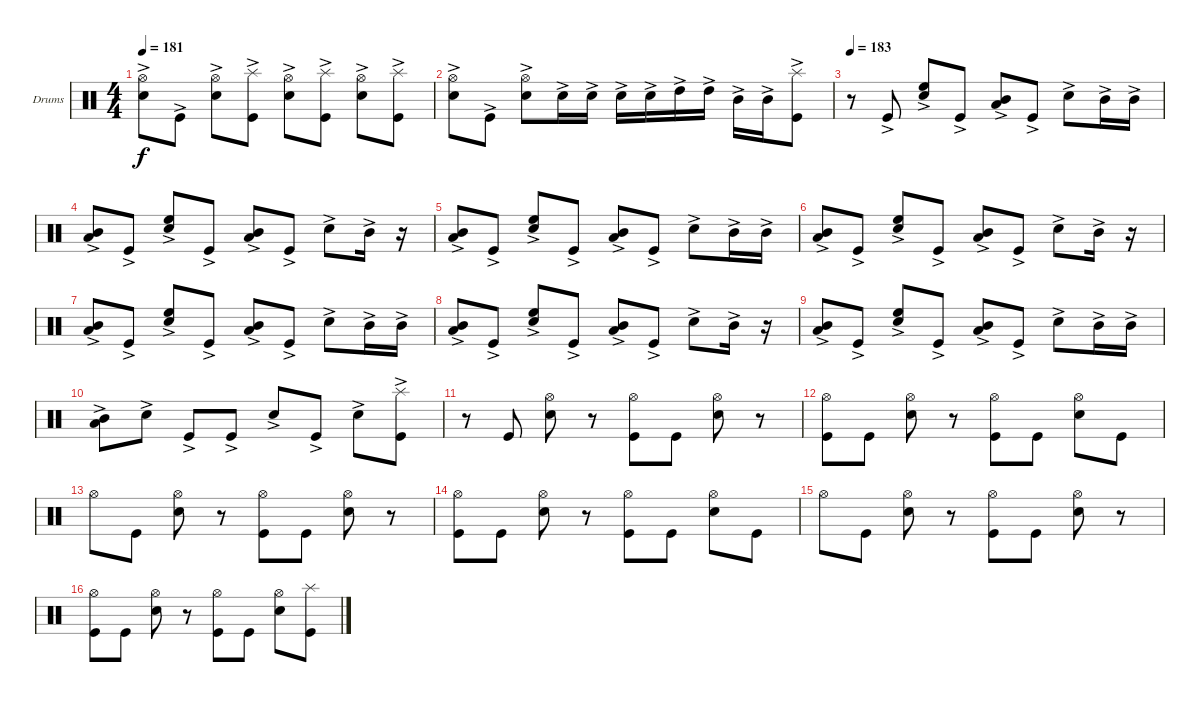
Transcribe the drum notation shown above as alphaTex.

\bracketExtendMode groupsimilarinstruments
\firstSystemTrackNameOrientation horizontal
\otherSystemsTrackNameOrientation horizontal
\track ("Drumkit" "Drums") {instrument percussion}
\staff {score}
\articulation defaults
\ts (4 4)
\tempo 181
\clef neutral
\ks c
("Snare (hit) 2"{ac} "Hi-Hat (open)"{ac}).8{dy f} "Kick (hit)"{ac}.8 ("Snare (hit) 2"{ac} "Hi-Hat (open)"{ac}).8 ("Kick (hit)"{ac} "Splash (hit)"{ac}).8 ("Snare (hit) 2"{ac} "Hi-Hat (open)"{ac}).8 ("Kick (hit)"{ac} "Splash (hit)"{ac}).8 ("Snare (hit) 2"{ac} "Hi-Hat (open)"{ac}).8 ("Kick (hit)"{ac} "Splash (hit)"{ac}).8 |
("Snare (hit) 2"{ac} "Hi-Hat (open)"{ac}).8 "Kick (hit)"{ac}.8 ("Snare (hit) 2"{ac} "Hi-Hat (open)"{ac}).8 "Snare (hit) 2"{ac}.16 "Snare (hit) 2"{ac}.16 "Snare (hit) 2"{ac}.16 "Snare (hit) 2"{ac}.16 "High Tom (hit)"{ac}.16 "High Tom (hit)"{ac}.16 "Mid Tom (hit)"{ac}.16 "Mid Tom (hit)"{ac}.16 ("Kick (hit)"{ac} "Splash (hit)"{ac}).8 |
\tempo 183
r.8 "Kick (hit)"{ac}.8 ("Snare (hit) 2"{ac} "High Floor Tom (hit)"{ac}).8 "Kick (hit)"{ac}.8 ("Mid Tom (hit)"{ac} "Low Tom (hit)"{ac}).8 "Kick (hit)"{ac}.8 "Snare (hit) 2"{ac}.8 "Mid Tom (hit)"{ac}.16 "Mid Tom (hit)"{ac}.16 |
("Mid Tom (hit)"{ac} "Low Tom (hit)"{ac}).8 "Kick (hit)"{ac}.8 ("Snare (hit) 2"{ac} "High Floor Tom (hit)"{ac}).8 "Kick (hit)"{ac}.8 ("Mid Tom (hit)"{ac} "Low Tom (hit)"{ac}).8 "Kick (hit)"{ac}.8 "Snare (hit) 2"{ac}.8 "Mid Tom (hit)"{ac}.16 r.16 |
("Mid Tom (hit)"{ac} "Low Tom (hit)"{ac}).8 "Kick (hit)"{ac}.8 ("Snare (hit) 2"{ac} "High Floor Tom (hit)"{ac}).8 "Kick (hit)"{ac}.8 ("Mid Tom (hit)"{ac} "Low Tom (hit)"{ac}).8 "Kick (hit)"{ac}.8 "Snare (hit) 2"{ac}.8 "Mid Tom (hit)"{ac}.16 "Mid Tom (hit)"{ac}.16 |
("Mid Tom (hit)"{ac} "Low Tom (hit)"{ac}).8 "Kick (hit)"{ac}.8 ("Snare (hit) 2"{ac} "High Floor Tom (hit)"{ac}).8 "Kick (hit)"{ac}.8 ("Mid Tom (hit)"{ac} "Low Tom (hit)"{ac}).8 "Kick (hit)"{ac}.8 "Snare (hit) 2"{ac}.8 "Mid Tom (hit)"{ac}.16 r.16 |
("Mid Tom (hit)"{ac} "Low Tom (hit)"{ac}).8 "Kick (hit)"{ac}.8 ("Snare (hit) 2"{ac} "High Floor Tom (hit)"{ac}).8 "Kick (hit)"{ac}.8 ("Mid Tom (hit)"{ac} "Low Tom (hit)"{ac}).8 "Kick (hit)"{ac}.8 "Snare (hit) 2"{ac}.8 "Mid Tom (hit)"{ac}.16 "Mid Tom (hit)"{ac}.16 |
("Mid Tom (hit)"{ac} "Low Tom (hit)"{ac}).8 "Kick (hit)"{ac}.8 ("Snare (hit) 2"{ac} "High Floor Tom (hit)"{ac}).8 "Kick (hit)"{ac}.8 ("Mid Tom (hit)"{ac} "Low Tom (hit)"{ac}).8 "Kick (hit)"{ac}.8 "Snare (hit) 2"{ac}.8 "Mid Tom (hit)"{ac}.16 r.16 |
("Mid Tom (hit)"{ac} "Low Tom (hit)"{ac}).8 "Kick (hit)"{ac}.8 ("Snare (hit) 2"{ac} "High Floor Tom (hit)"{ac}).8 "Kick (hit)"{ac}.8 ("Mid Tom (hit)"{ac} "Low Tom (hit)"{ac}).8 "Kick (hit)"{ac}.8 "Snare (hit) 2"{ac}.8 "Mid Tom (hit)"{ac}.16 "Mid Tom (hit)"{ac}.16 |
("Mid Tom (hit)"{ac} "Low Tom (hit)"{ac}).8 "Snare (hit) 2"{ac}.8 "Kick (hit)"{ac}.8 "Kick (hit)"{ac}.8 "Snare (hit) 2"{ac}.8 "Kick (hit)"{ac}.8 "Snare (hit) 2"{ac}.8 ("Kick (hit)"{ac} "Splash (hit)"{ac}).8 |
r.8 "Kick (hit)".8 ("Snare (hit) 2" "Hi-Hat (open)").8 r.8 ("Kick (hit)" "Hi-Hat (open)").8 "Kick (hit)".8 ("Snare (hit) 2" "Hi-Hat (open)").8 r.8 |
("Kick (hit)" "Hi-Hat (open)").8 "Kick (hit)".8 ("Snare (hit) 2" "Hi-Hat (open)").8 r.8 ("Kick (hit)" "Hi-Hat (open)").8 "Kick (hit)".8 ("Snare (hit) 2" "Hi-Hat (open)").8 "Kick (hit)".8 |
"Hi-Hat (open)".8 "Kick (hit)".8 ("Snare (hit) 2" "Hi-Hat (open)").8 r.8 ("Kick (hit)" "Hi-Hat (open)").8 "Kick (hit)".8 ("Snare (hit) 2" "Hi-Hat (open)").8 r.8 |
("Kick (hit)" "Hi-Hat (open)").8 "Kick (hit)".8 ("Snare (hit) 2" "Hi-Hat (open)").8 r.8 ("Kick (hit)" "Hi-Hat (open)").8 "Kick (hit)".8 ("Snare (hit) 2" "Hi-Hat (open)").8 "Kick (hit)".8 |
"Hi-Hat (open)".8 "Kick (hit)".8 ("Snare (hit) 2" "Hi-Hat (open)").8 r.8 ("Kick (hit)" "Hi-Hat (open)").8 "Kick (hit)".8 ("Snare (hit) 2" "Hi-Hat (open)").8 r.8 |
("Kick (hit)" "Hi-Hat (open)").8 "Kick (hit)".8 ("Snare (hit) 2" "Hi-Hat (open)").8 r.8 ("Kick (hit)" "Hi-Hat (open)").8 "Kick (hit)".8 ("Snare (hit) 2" "Hi-Hat (open)").8 ("Kick (hit)" "Splash (hit)").8
